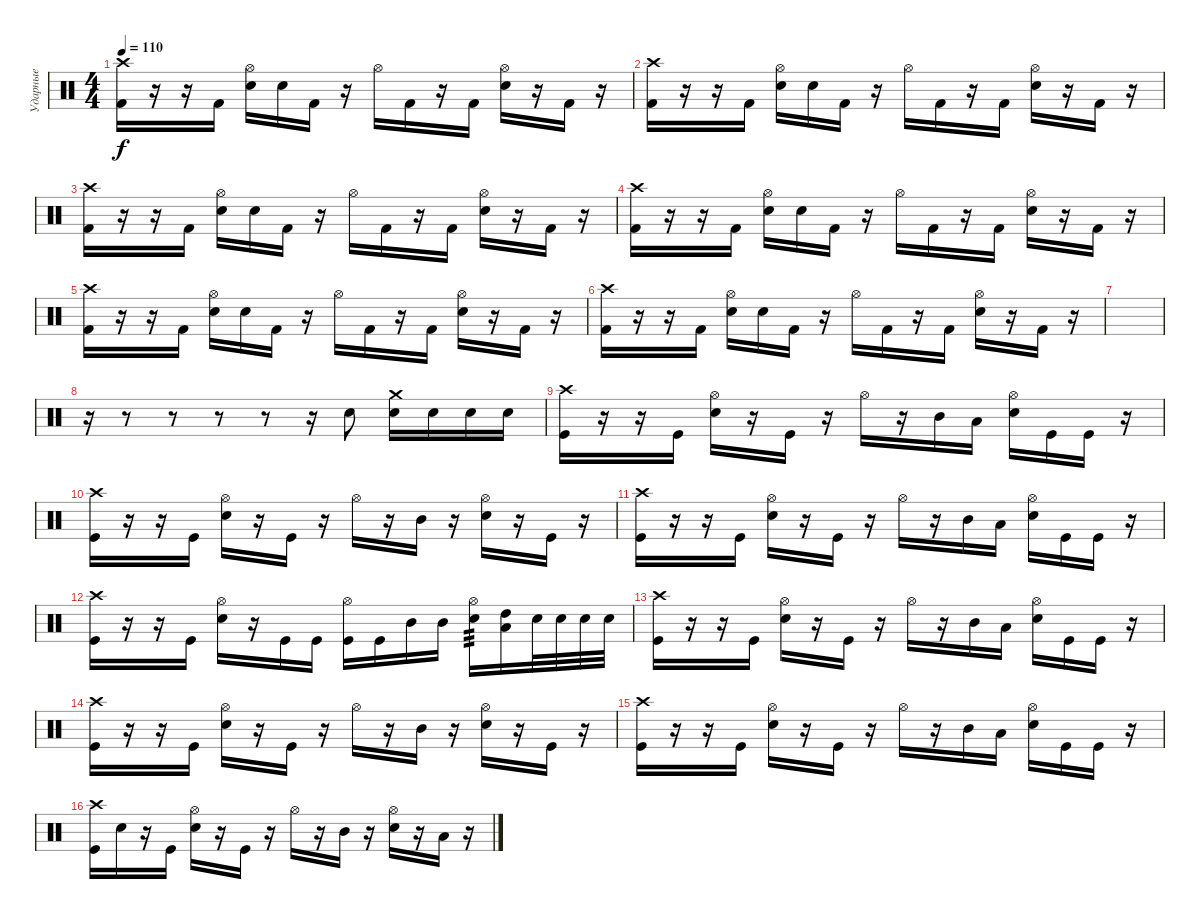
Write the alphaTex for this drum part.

\track ("Ударные" "Ударные") {instrument percussion}
\staff {score}
\articulation defaults
\ts (4 4)
\tempo 110
\clef neutral
\ks c
("Crash high (hit)" "Kick (hit) 2").16{dy f} r.16 r.16 "Kick (hit) 2".16 ("Hi-Hat (open)" "Electric Snare (hit)").16 "Electric Snare (hit)".16 "Kick (hit) 2".16 r.16 "Hi-Hat (open)".16 "Kick (hit) 2".16 r.16 "Kick (hit) 2".16 ("Hi-Hat (open)" "Electric Snare (hit)").16 r.16 "Kick (hit) 2".16 r.16 |
("Crash high (hit)" "Kick (hit) 2").16 r.16 r.16 "Kick (hit) 2".16 ("Hi-Hat (open)" "Electric Snare (hit)").16 "Electric Snare (hit)".16 "Kick (hit) 2".16 r.16 "Hi-Hat (open)".16 "Kick (hit) 2".16 r.16 "Kick (hit) 2".16 ("Hi-Hat (open)" "Electric Snare (hit)").16 r.16 "Kick (hit) 2".16 r.16 |
("Crash high (hit)" "Kick (hit) 2").16 r.16 r.16 "Kick (hit) 2".16 ("Hi-Hat (open)" "Electric Snare (hit)").16 "Electric Snare (hit)".16 "Kick (hit) 2".16 r.16 "Hi-Hat (open)".16 "Kick (hit) 2".16 r.16 "Kick (hit) 2".16 ("Hi-Hat (open)" "Electric Snare (hit)").16 r.16 "Kick (hit) 2".16 r.16 |
("Crash high (hit)" "Kick (hit) 2").16 r.16 r.16 "Kick (hit) 2".16 ("Hi-Hat (open)" "Electric Snare (hit)").16 "Electric Snare (hit)".16 "Kick (hit) 2".16 r.16 "Hi-Hat (open)".16 "Kick (hit) 2".16 r.16 "Kick (hit) 2".16 ("Hi-Hat (open)" "Electric Snare (hit)").16 r.16 "Kick (hit) 2".16 r.16 |
("Crash high (hit)" "Kick (hit) 2").16 r.16 r.16 "Kick (hit) 2".16 ("Hi-Hat (open)" "Electric Snare (hit)").16 "Electric Snare (hit)".16 "Kick (hit) 2".16 r.16 "Hi-Hat (open)".16 "Kick (hit) 2".16 r.16 "Kick (hit) 2".16 ("Hi-Hat (open)" "Electric Snare (hit)").16 r.16 "Kick (hit) 2".16 r.16 |
("Crash high (hit)" "Kick (hit) 2").16 r.16 r.16 "Kick (hit) 2".16 ("Hi-Hat (open)" "Electric Snare (hit)").16 "Electric Snare (hit)".16 "Kick (hit) 2".16 r.16 "Hi-Hat (open)".16 "Kick (hit) 2".16 r.16 "Kick (hit) 2".16 ("Hi-Hat (open)" "Electric Snare (hit)").16 r.16 "Kick (hit) 2".16 r.16 |
|
r.16 r.8 r.8 r.8 r.8 r.16 "Electric Snare (hit)".8 ("Crash medium (hit)" "Electric Snare (hit)").16 "Electric Snare (hit)".16 "Electric Snare (hit)".16 "Electric Snare (hit)".16 |
("Crash high (hit)" "Kick (hit)").16 r.16 r.16 "Kick (hit)".16 ("Hi-Hat (open)" "Electric Snare (hit)").16 r.16 "Kick (hit)".16 r.16 "Hi-Hat (open)".16 r.16 "Mid Tom (hit)".16 "Low Tom (hit)".16 ("Hi-Hat (open)" "Electric Snare (hit)").16 "Kick (hit)".16 "Kick (hit)".16 r.16 |
("Crash high (hit)" "Kick (hit)").16 r.16 r.16 "Kick (hit)".16 ("Hi-Hat (open)" "Electric Snare (hit)").16 r.16 "Kick (hit)".16 r.16 "Hi-Hat (open)".16 r.16 "Mid Tom (hit)".16 r.16 ("Hi-Hat (open)" "Electric Snare (hit)").16 r.16 "Kick (hit)".16 r.16 |
("Crash high (hit)" "Kick (hit)").16 r.16 r.16 "Kick (hit)".16 ("Hi-Hat (open)" "Electric Snare (hit)").16 r.16 "Kick (hit)".16 r.16 "Hi-Hat (open)".16 r.16 "Mid Tom (hit)".16 "Low Tom (hit)".16 ("Hi-Hat (open)" "Electric Snare (hit)").16 "Kick (hit)".16 "Kick (hit)".16 r.16 |
("Crash high (hit)" "Kick (hit)").16 r.16 r.16 "Kick (hit)".16 ("Hi-Hat (open)" "Electric Snare (hit)").16 r.16 "Kick (hit)".16 "Kick (hit)".16 ("Hi-Hat (open)" "Kick (hit)").16 "Kick (hit)".16 "Mid Tom (hit)".16 "Mid Tom (hit)".16 ("Hi-Hat (open)" "Electric Snare (hit)").16{tp 3} ("High Tom (hit)" "Low Tom (hit)").16 "Electric Snare (hit)".32 "Electric Snare (hit)".32 "Electric Snare (hit)".32 "Electric Snare (hit)".32 |
("Crash high (hit)" "Kick (hit)").16 r.16 r.16 "Kick (hit)".16 ("Hi-Hat (open)" "Electric Snare (hit)").16 r.16 "Kick (hit)".16 r.16 "Hi-Hat (open)".16 r.16 "Mid Tom (hit)".16 "Low Tom (hit)".16 ("Hi-Hat (open)" "Electric Snare (hit)").16 "Kick (hit)".16 "Kick (hit)".16 r.16 |
("Crash high (hit)" "Kick (hit)").16 r.16 r.16 "Kick (hit)".16 ("Hi-Hat (open)" "Electric Snare (hit)").16 r.16 "Kick (hit)".16 r.16 "Hi-Hat (open)".16 r.16 "Mid Tom (hit)".16 r.16 ("Hi-Hat (open)" "Electric Snare (hit)").16 r.16 "Kick (hit)".16 r.16 |
("Crash high (hit)" "Kick (hit)").16 r.16 r.16 "Kick (hit)".16 ("Hi-Hat (open)" "Electric Snare (hit)").16 r.16 "Kick (hit)".16 r.16 "Hi-Hat (open)".16 r.16 "Mid Tom (hit)".16 "Low Tom (hit)".16 ("Hi-Hat (open)" "Electric Snare (hit)").16 "Kick (hit)".16 "Kick (hit)".16 r.16 |
("Crash high (hit)" "Kick (hit)").16 "Electric Snare (hit)".16 r.16 "Kick (hit)".16 ("Hi-Hat (open)" "Electric Snare (hit)").16 r.16 "Kick (hit)".16 r.16 "Hi-Hat (open)".16 r.16 "Mid Tom (hit)".16 r.16 ("Hi-Hat (open)" "Electric Snare (hit)").16 r.16 "Low Tom (hit)".16 r.16
